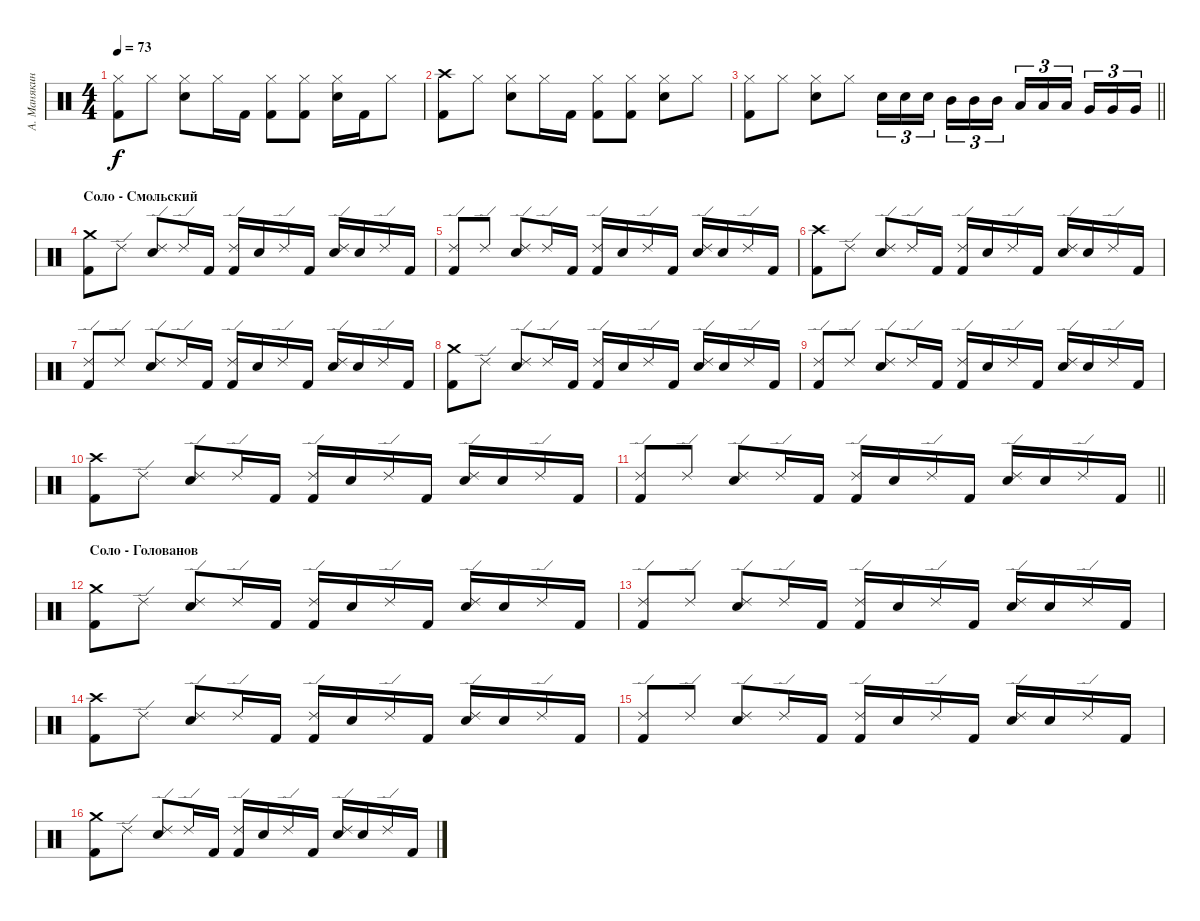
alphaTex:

\track ("А. Манякин" "А. Манякин") {instrument percussion}
\staff {score}
\articulation defaults
\ts (4 4)
\tempo 73
\clef neutral
\ks c
("Hi-Hat (closed)" "Kick (hit) 2").8{dy f} "Hi-Hat (closed)".8 ("Hi-Hat (closed)" "Snare (hit) 2").8 "Hi-Hat (closed)".16 "Kick (hit) 2".16 ("Hi-Hat (closed)" "Kick (hit) 2").8 ("Hi-Hat (closed)" "Kick (hit) 2").8 ("Hi-Hat (closed)" "Snare (hit) 2").16 "Kick (hit) 2".16 "Hi-Hat (closed)".8 |
("Kick (hit) 2" "Crash high (hit)").8 "Hi-Hat (closed)".8 ("Snare (hit) 2" "Hi-Hat (closed)").8 "Hi-Hat (closed)".16 "Kick (hit) 2".16 ("Kick (hit) 2" "Hi-Hat (closed)").8 ("Kick (hit) 2" "Hi-Hat (closed)").8 ("Snare (hit) 2" "Hi-Hat (closed)").8 "Hi-Hat (closed)".8 |
\barLineRight lightlight
("Kick (hit) 2" "Hi-Hat (closed)").8 "Hi-Hat (closed)".8 ("Snare (hit) 2" "Hi-Hat (closed)").8 "Hi-Hat (closed)".8 "Snare (hit) 2".16{tu (3 2)} "Snare (hit) 2".16{tu (3 2)} "Snare (hit) 2".16{tu (3 2) beam splitsecondary} "Mid Tom (hit)".16{tu (3 2)} "Mid Tom (hit)".16{tu (3 2)} "Mid Tom (hit)".16{tu (3 2)} "Low Tom (hit)".16{tu (3 2)} "Low Tom (hit)".16{tu (3 2)} "Low Tom (hit)".16{tu (3 2) beam splitsecondary} "Very Low Tom (hit)".16{tu (3 2)} "Very Low Tom (hit)".16{tu (3 2)} "Very Low Tom (hit)".16{tu (3 2)} |
\section ("" "Соло - Смольский")
("Kick (hit) 2" "Crash medium (hit)").8 "Ride (edge) 2".8 ("Snare (hit) 2" "Ride (edge) 2").8 "Ride (edge) 2".16 "Kick (hit) 2".16 ("Kick (hit) 2" "Ride (edge) 2").16 "Snare (hit) 2".16 "Ride (edge) 2".16 "Kick (hit) 2".16 ("Snare (hit) 2" "Ride (edge) 2").16 "Snare (hit) 2".16 "Ride (edge) 2".16 "Kick (hit) 2".16 |
("Ride (edge) 2" "Kick (hit) 2").8 "Ride (edge) 2".8 ("Snare (hit) 2" "Ride (edge) 2").8 "Ride (edge) 2".16 "Kick (hit) 2".16 ("Kick (hit) 2" "Ride (edge) 2").16 "Snare (hit) 2".16 "Ride (edge) 2".16 "Kick (hit) 2".16 ("Snare (hit) 2" "Ride (edge) 2").16 "Snare (hit) 2".16 "Ride (edge) 2".16 "Kick (hit) 2".16 |
("Kick (hit) 2" "Crash high (hit)").8 "Ride (edge) 2".8 ("Snare (hit) 2" "Ride (edge) 2").8 "Ride (edge) 2".16 "Kick (hit) 2".16 ("Kick (hit) 2" "Ride (edge) 2").16 "Snare (hit) 2".16 "Ride (edge) 2".16 "Kick (hit) 2".16 ("Snare (hit) 2" "Ride (edge) 2").16 "Snare (hit) 2".16 "Ride (edge) 2".16 "Kick (hit) 2".16 |
("Ride (edge) 2" "Kick (hit) 2").8 "Ride (edge) 2".8 ("Snare (hit) 2" "Ride (edge) 2").8 "Ride (edge) 2".16 "Kick (hit) 2".16 ("Kick (hit) 2" "Ride (edge) 2").16 "Snare (hit) 2".16 "Ride (edge) 2".16 "Kick (hit) 2".16 ("Snare (hit) 2" "Ride (edge) 2").16 "Snare (hit) 2".16 "Ride (edge) 2".16 "Kick (hit) 2".16 |
("Kick (hit) 2" "Crash medium (hit)").8 "Ride (edge) 2".8 ("Snare (hit) 2" "Ride (edge) 2").8 "Ride (edge) 2".16 "Kick (hit) 2".16 ("Kick (hit) 2" "Ride (edge) 2").16 "Snare (hit) 2".16 "Ride (edge) 2".16 "Kick (hit) 2".16 ("Snare (hit) 2" "Ride (edge) 2").16 "Snare (hit) 2".16 "Ride (edge) 2".16 "Kick (hit) 2".16 |
("Ride (edge) 2" "Kick (hit) 2").8 "Ride (edge) 2".8 ("Snare (hit) 2" "Ride (edge) 2").8 "Ride (edge) 2".16 "Kick (hit) 2".16 ("Kick (hit) 2" "Ride (edge) 2").16 "Snare (hit) 2".16 "Ride (edge) 2".16 "Kick (hit) 2".16 ("Snare (hit) 2" "Ride (edge) 2").16 "Snare (hit) 2".16 "Ride (edge) 2".16 "Kick (hit) 2".16 |
("Kick (hit) 2" "Crash high (hit)").8 "Ride (edge) 2".8 ("Snare (hit) 2" "Ride (edge) 2").8 "Ride (edge) 2".16 "Kick (hit) 2".16 ("Kick (hit) 2" "Ride (edge) 2").16 "Snare (hit) 2".16 "Ride (edge) 2".16 "Kick (hit) 2".16 ("Snare (hit) 2" "Ride (edge) 2").16 "Snare (hit) 2".16 "Ride (edge) 2".16 "Kick (hit) 2".16 |
\barLineRight lightlight
("Ride (edge) 2" "Kick (hit) 2").8 "Ride (edge) 2".8 ("Snare (hit) 2" "Ride (edge) 2").8 "Ride (edge) 2".16 "Kick (hit) 2".16 ("Kick (hit) 2" "Ride (edge) 2").16 "Snare (hit) 2".16 "Ride (edge) 2".16 "Kick (hit) 2".16 ("Snare (hit) 2" "Ride (edge) 2").16 "Snare (hit) 2".16 "Ride (edge) 2".16 "Kick (hit) 2".16 |
\section ("" "Соло - Голованов")
("Kick (hit) 2" "Crash medium (hit)").8 "Ride (edge) 2".8 ("Snare (hit) 2" "Ride (edge) 2").8 "Ride (edge) 2".16 "Kick (hit) 2".16 ("Kick (hit) 2" "Ride (edge) 2").16 "Snare (hit) 2".16 "Ride (edge) 2".16 "Kick (hit) 2".16 ("Snare (hit) 2" "Ride (edge) 2").16 "Snare (hit) 2".16 "Ride (edge) 2".16 "Kick (hit) 2".16 |
("Ride (edge) 2" "Kick (hit) 2").8 "Ride (edge) 2".8 ("Snare (hit) 2" "Ride (edge) 2").8 "Ride (edge) 2".16 "Kick (hit) 2".16 ("Kick (hit) 2" "Ride (edge) 2").16 "Snare (hit) 2".16 "Ride (edge) 2".16 "Kick (hit) 2".16 ("Snare (hit) 2" "Ride (edge) 2").16 "Snare (hit) 2".16 "Ride (edge) 2".16 "Kick (hit) 2".16 |
("Kick (hit) 2" "Crash high (hit)").8 "Ride (edge) 2".8 ("Snare (hit) 2" "Ride (edge) 2").8 "Ride (edge) 2".16 "Kick (hit) 2".16 ("Kick (hit) 2" "Ride (edge) 2").16 "Snare (hit) 2".16 "Ride (edge) 2".16 "Kick (hit) 2".16 ("Snare (hit) 2" "Ride (edge) 2").16 "Snare (hit) 2".16 "Ride (edge) 2".16 "Kick (hit) 2".16 |
("Ride (edge) 2" "Kick (hit) 2").8 "Ride (edge) 2".8 ("Snare (hit) 2" "Ride (edge) 2").8 "Ride (edge) 2".16 "Kick (hit) 2".16 ("Kick (hit) 2" "Ride (edge) 2").16 "Snare (hit) 2".16 "Ride (edge) 2".16 "Kick (hit) 2".16 ("Snare (hit) 2" "Ride (edge) 2").16 "Snare (hit) 2".16 "Ride (edge) 2".16 "Kick (hit) 2".16 |
("Kick (hit) 2" "Crash medium (hit)").8 "Ride (edge) 2".8 ("Snare (hit) 2" "Ride (edge) 2").8 "Ride (edge) 2".16 "Kick (hit) 2".16 ("Kick (hit) 2" "Ride (edge) 2").16 "Snare (hit) 2".16 "Ride (edge) 2".16 "Kick (hit) 2".16 ("Snare (hit) 2" "Ride (edge) 2").16 "Snare (hit) 2".16 "Ride (edge) 2".16 "Kick (hit) 2".16
